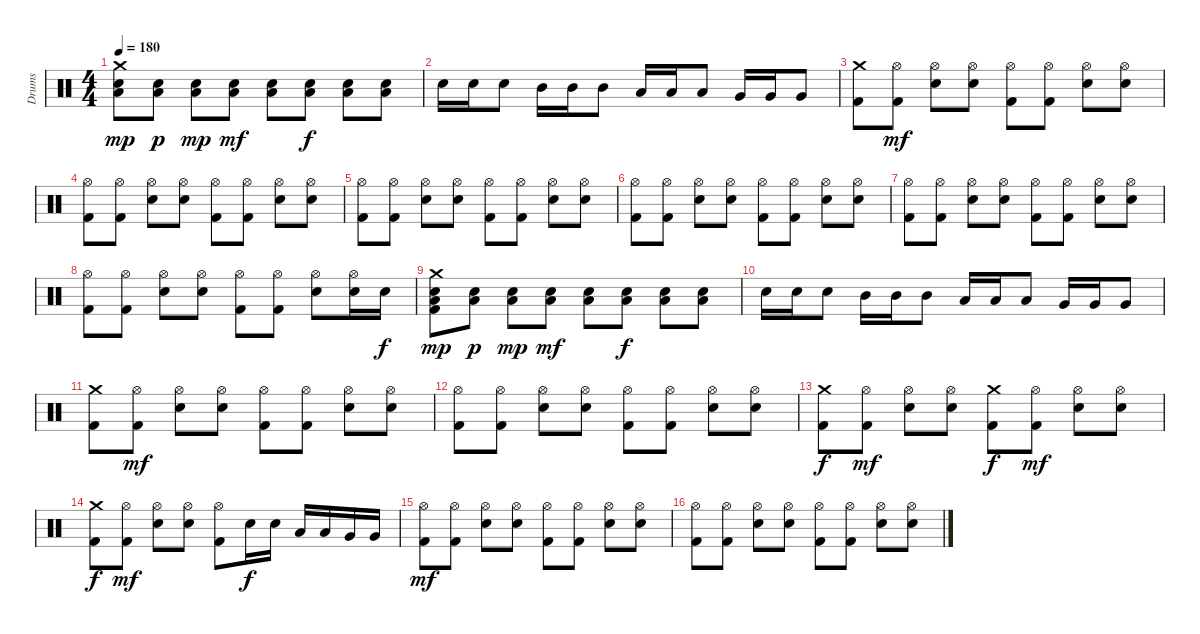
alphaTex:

\track ("Drums" "Drums") {instrument percussion}
\staff {score}
\articulation defaults
\ts (4 4)
\tempo 180
\clef neutral
\ks c
("Crash medium (hit)" "Low Floor Tom (hit)" "Electric Snare (hit)").8{dy mp} ("Low Floor Tom (hit)" "Electric Snare (hit)").8{dy p} ("Low Floor Tom (hit)" "Electric Snare (hit)").8{dy mp} ("Low Floor Tom (hit)" "Electric Snare (hit)").8{dy mf} ("Low Floor Tom (hit)" "Electric Snare (hit)").8 ("Low Floor Tom (hit)" "Electric Snare (hit)").8{dy f} ("Low Floor Tom (hit)" "Electric Snare (hit)").8 ("Low Floor Tom (hit)" "Electric Snare (hit)").8 |
"Electric Snare (hit)".16 "Electric Snare (hit)".16 "Electric Snare (hit)".8 "Mid Tom (hit)".16 "Mid Tom (hit)".16 "Mid Tom (hit)".8 "Low Tom (hit)".16 "Low Tom (hit)".16 "Low Tom (hit)".8 "Very Low Tom (hit)".16 "Very Low Tom (hit)".16 "Very Low Tom (hit)".8 |
("Crash medium (hit)" "Kick (hit) 2").8 ("Hi-Hat (open)" "Kick (hit) 2").8{dy mf} ("Hi-Hat (open)" "Electric Snare (hit)").8 ("Hi-Hat (open)" "Electric Snare (hit)").8 ("Hi-Hat (open)" "Kick (hit) 2").8 ("Hi-Hat (open)" "Kick (hit) 2").8 ("Hi-Hat (open)" "Electric Snare (hit)").8 ("Hi-Hat (open)" "Electric Snare (hit)").8 |
("Hi-Hat (open)" "Kick (hit) 2").8 ("Hi-Hat (open)" "Kick (hit) 2").8 ("Hi-Hat (open)" "Electric Snare (hit)").8 ("Hi-Hat (open)" "Electric Snare (hit)").8 ("Hi-Hat (open)" "Kick (hit) 2").8 ("Hi-Hat (open)" "Kick (hit) 2").8 ("Hi-Hat (open)" "Electric Snare (hit)").8 ("Hi-Hat (open)" "Electric Snare (hit)").8 |
("Hi-Hat (open)" "Kick (hit) 2").8 ("Hi-Hat (open)" "Kick (hit) 2").8 ("Hi-Hat (open)" "Electric Snare (hit)").8 ("Hi-Hat (open)" "Electric Snare (hit)").8 ("Hi-Hat (open)" "Kick (hit) 2").8 ("Hi-Hat (open)" "Kick (hit) 2").8 ("Hi-Hat (open)" "Electric Snare (hit)").8 ("Hi-Hat (open)" "Electric Snare (hit)").8 |
("Hi-Hat (open)" "Kick (hit) 2").8 ("Hi-Hat (open)" "Kick (hit) 2").8 ("Hi-Hat (open)" "Electric Snare (hit)").8 ("Hi-Hat (open)" "Electric Snare (hit)").8 ("Hi-Hat (open)" "Kick (hit) 2").8 ("Hi-Hat (open)" "Kick (hit) 2").8 ("Hi-Hat (open)" "Electric Snare (hit)").8 ("Hi-Hat (open)" "Electric Snare (hit)").8 |
("Hi-Hat (open)" "Kick (hit) 2").8 ("Hi-Hat (open)" "Kick (hit) 2").8 ("Hi-Hat (open)" "Electric Snare (hit)").8 ("Hi-Hat (open)" "Electric Snare (hit)").8 ("Hi-Hat (open)" "Kick (hit) 2").8 ("Hi-Hat (open)" "Kick (hit) 2").8 ("Hi-Hat (open)" "Electric Snare (hit)").8 ("Hi-Hat (open)" "Electric Snare (hit)").8 |
("Hi-Hat (open)" "Kick (hit) 2").8 ("Hi-Hat (open)" "Kick (hit) 2").8 ("Hi-Hat (open)" "Electric Snare (hit)").8 ("Hi-Hat (open)" "Electric Snare (hit)").8 ("Hi-Hat (open)" "Kick (hit) 2").8 ("Hi-Hat (open)" "Kick (hit) 2").8 ("Hi-Hat (open)" "Electric Snare (hit)").8 ("Hi-Hat (open)" "Electric Snare (hit)").16 "Electric Snare (hit)".16{dy f} |
("Crash medium (hit)" "Low Floor Tom (hit)" "Electric Snare (hit)" "Kick (hit) 2").8{dy mp} ("Low Floor Tom (hit)" "Electric Snare (hit)").8{dy p} ("Low Floor Tom (hit)" "Electric Snare (hit)").8{dy mp} ("Low Floor Tom (hit)" "Electric Snare (hit)").8{dy mf} ("Low Floor Tom (hit)" "Electric Snare (hit)").8 ("Low Floor Tom (hit)" "Electric Snare (hit)").8{dy f} ("Low Floor Tom (hit)" "Electric Snare (hit)").8 ("Low Floor Tom (hit)" "Electric Snare (hit)").8 |
"Electric Snare (hit)".16 "Electric Snare (hit)".16 "Electric Snare (hit)".8 "Mid Tom (hit)".16 "Mid Tom (hit)".16 "Mid Tom (hit)".8 "Low Tom (hit)".16 "Low Tom (hit)".16 "Low Tom (hit)".8 "Very Low Tom (hit)".16 "Very Low Tom (hit)".16 "Very Low Tom (hit)".8 |
("Crash medium (hit)" "Kick (hit) 2").8 ("Hi-Hat (open)" "Kick (hit) 2").8{dy mf} ("Hi-Hat (open)" "Electric Snare (hit)").8 ("Hi-Hat (open)" "Electric Snare (hit)").8 ("Hi-Hat (open)" "Kick (hit) 2").8 ("Hi-Hat (open)" "Kick (hit) 2").8 ("Hi-Hat (open)" "Electric Snare (hit)").8 ("Hi-Hat (open)" "Electric Snare (hit)").8 |
("Hi-Hat (open)" "Kick (hit) 2").8 ("Hi-Hat (open)" "Kick (hit) 2").8 ("Hi-Hat (open)" "Electric Snare (hit)").8 ("Hi-Hat (open)" "Electric Snare (hit)").8 ("Hi-Hat (open)" "Kick (hit) 2").8 ("Hi-Hat (open)" "Kick (hit) 2").8 ("Hi-Hat (open)" "Electric Snare (hit)").8 ("Hi-Hat (open)" "Electric Snare (hit)").8 |
("Crash medium (hit)" "Kick (hit) 2").8{dy f} ("Hi-Hat (open)" "Kick (hit) 2").8{dy mf} ("Hi-Hat (open)" "Electric Snare (hit)").8 ("Hi-Hat (open)" "Electric Snare (hit)").8 ("Crash medium (hit)" "Kick (hit) 2").8{dy f} ("Hi-Hat (open)" "Kick (hit) 2").8{dy mf} ("Hi-Hat (open)" "Electric Snare (hit)").8 ("Hi-Hat (open)" "Electric Snare (hit)").8 |
("Crash medium (hit)" "Kick (hit) 2").8{dy f} ("Hi-Hat (open)" "Kick (hit) 2").8{dy mf} ("Hi-Hat (open)" "Electric Snare (hit)").8 ("Hi-Hat (open)" "Electric Snare (hit)").8 ("Hi-Hat (open)" "Kick (hit) 2").8 "Electric Snare (hit)".16{dy f} "Electric Snare (hit)".16 "Low Tom (hit)".16 "Low Tom (hit)".16 "Very Low Tom (hit)".16 "Very Low Tom (hit)".16 |
("Hi-Hat (open)" "Kick (hit) 2").8{dy mf} ("Hi-Hat (open)" "Kick (hit) 2").8 ("Hi-Hat (open)" "Electric Snare (hit)").8 ("Hi-Hat (open)" "Electric Snare (hit)").8 ("Hi-Hat (open)" "Kick (hit) 2").8 ("Hi-Hat (open)" "Kick (hit) 2").8 ("Hi-Hat (open)" "Electric Snare (hit)").8 ("Hi-Hat (open)" "Electric Snare (hit)").8 |
("Hi-Hat (open)" "Kick (hit) 2").8 ("Hi-Hat (open)" "Kick (hit) 2").8 ("Hi-Hat (open)" "Electric Snare (hit)").8 ("Hi-Hat (open)" "Electric Snare (hit)").8 ("Hi-Hat (open)" "Kick (hit) 2").8 ("Hi-Hat (open)" "Kick (hit) 2").8 ("Hi-Hat (open)" "Electric Snare (hit)").8 ("Hi-Hat (open)" "Electric Snare (hit)").8
